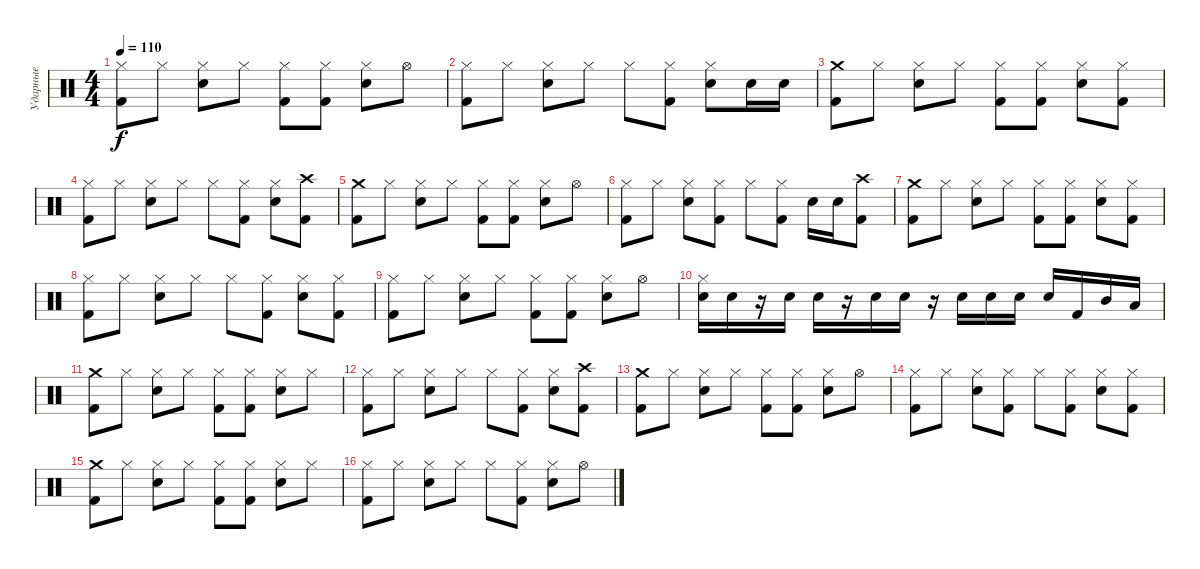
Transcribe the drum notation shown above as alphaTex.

\track ("Ударные" "Ударные") {instrument percussion}
\staff {score}
\articulation defaults
\ts (4 4)
\tempo 110
\clef neutral
\ks c
("Hi-Hat (closed)" "Kick (hit) 2").8{dy f} "Hi-Hat (closed)".8 ("Hi-Hat (closed)" "Electric Snare (hit)").8 "Hi-Hat (closed)".8 ("Hi-Hat (closed)" "Kick (hit) 2").8 ("Hi-Hat (closed)" "Kick (hit) 2").8 ("Hi-Hat (closed)" "Electric Snare (hit)").8 "Hi-Hat (open)".8 |
("Hi-Hat (closed)" "Kick (hit) 2").8 "Hi-Hat (closed)".8 ("Hi-Hat (closed)" "Electric Snare (hit)").8 "Hi-Hat (closed)".8 "Hi-Hat (closed)".8 ("Hi-Hat (closed)" "Kick (hit) 2").8 ("Hi-Hat (closed)" "Electric Snare (hit)").8 "Electric Snare (hit)".16 "Electric Snare (hit)".16 |
("Crash medium (hit)" "Kick (hit) 2").8 "Hi-Hat (closed)".8 ("Hi-Hat (closed)" "Electric Snare (hit)").8 "Hi-Hat (closed)".8 ("Hi-Hat (closed)" "Kick (hit) 2").8 ("Hi-Hat (closed)" "Kick (hit) 2").8 ("Hi-Hat (closed)" "Electric Snare (hit)").8 ("Hi-Hat (closed)" "Kick (hit) 2").8 |
("Hi-Hat (closed)" "Kick (hit) 2").8 "Hi-Hat (closed)".8 ("Hi-Hat (closed)" "Electric Snare (hit)").8 "Hi-Hat (closed)".8 "Hi-Hat (closed)".8 ("Hi-Hat (closed)" "Kick (hit) 2").8 ("Hi-Hat (closed)" "Electric Snare (hit)").8 ("Crash high (hit)" "Kick (hit) 2").8 |
("Crash medium (hit)" "Kick (hit) 2").8 "Hi-Hat (closed)".8 ("Hi-Hat (closed)" "Electric Snare (hit)").8 "Hi-Hat (closed)".8 ("Hi-Hat (closed)" "Kick (hit) 2").8 ("Hi-Hat (closed)" "Kick (hit) 2").8 ("Hi-Hat (closed)" "Electric Snare (hit)").8 "Hi-Hat (open)".8 |
("Hi-Hat (closed)" "Kick (hit) 2").8 "Hi-Hat (closed)".8 ("Hi-Hat (closed)" "Electric Snare (hit)").8 ("Hi-Hat (closed)" "Kick (hit) 2").8 "Hi-Hat (closed)".8 ("Hi-Hat (closed)" "Kick (hit) 2").8 "Electric Snare (hit)".16 "Electric Snare (hit)".16 ("Crash high (hit)" "Kick (hit) 2").8 |
("Crash medium (hit)" "Kick (hit) 2").8 "Hi-Hat (closed)".8 ("Hi-Hat (closed)" "Electric Snare (hit)").8 "Hi-Hat (closed)".8 ("Hi-Hat (closed)" "Kick (hit) 2").8 ("Hi-Hat (closed)" "Kick (hit) 2").8 ("Hi-Hat (closed)" "Electric Snare (hit)").8 ("Hi-Hat (closed)" "Kick (hit) 2").8 |
("Hi-Hat (closed)" "Kick (hit) 2").8 "Hi-Hat (closed)".8 ("Hi-Hat (closed)" "Electric Snare (hit)").8 "Hi-Hat (closed)".8 "Hi-Hat (closed)".8 ("Hi-Hat (closed)" "Kick (hit) 2").8 ("Hi-Hat (closed)" "Electric Snare (hit)").8 ("Hi-Hat (closed)" "Kick (hit) 2").8 |
("Hi-Hat (closed)" "Kick (hit) 2").8 "Hi-Hat (closed)".8 ("Hi-Hat (closed)" "Electric Snare (hit)").8 "Hi-Hat (closed)".8 ("Hi-Hat (closed)" "Kick (hit) 2").8 ("Hi-Hat (closed)" "Kick (hit) 2").8 ("Hi-Hat (closed)" "Electric Snare (hit)").8 "Hi-Hat (open)".8 |
("Hi-Hat (closed)" "Electric Snare (hit)").16 "Electric Snare (hit)".16 r.16 "Electric Snare (hit)".16 "Electric Snare (hit)".16 r.16 "Electric Snare (hit)".16 "Electric Snare (hit)".16 r.16 "Electric Snare (hit)".16 "Electric Snare (hit)".16 "Electric Snare (hit)".16 "Electric Snare (hit)".16 "Kick (hit) 2".16 "Mid Tom (hit)".16 "Low Tom (hit)".16 |
("Crash medium (hit)" "Kick (hit) 2").8 "Hi-Hat (closed)".8 ("Hi-Hat (closed)" "Electric Snare (hit)").8 "Hi-Hat (closed)".8 ("Hi-Hat (closed)" "Kick (hit) 2").8 ("Hi-Hat (closed)" "Kick (hit) 2").8 ("Hi-Hat (closed)" "Electric Snare (hit)").8 "Hi-Hat (closed)".8 |
("Hi-Hat (closed)" "Kick (hit) 2").8 "Hi-Hat (closed)".8 ("Hi-Hat (closed)" "Electric Snare (hit)").8 "Hi-Hat (closed)".8 "Hi-Hat (closed)".8 ("Hi-Hat (closed)" "Kick (hit) 2").8 ("Hi-Hat (closed)" "Electric Snare (hit)").8 ("Crash high (hit)" "Kick (hit) 2").8 |
("Crash medium (hit)" "Kick (hit) 2").8 "Hi-Hat (closed)".8 ("Hi-Hat (closed)" "Electric Snare (hit)").8 "Hi-Hat (closed)".8 ("Hi-Hat (closed)" "Kick (hit) 2").8 ("Hi-Hat (closed)" "Kick (hit) 2").8 ("Hi-Hat (closed)" "Electric Snare (hit)").8 "Hi-Hat (open)".8 |
("Hi-Hat (closed)" "Kick (hit) 2").8 "Hi-Hat (closed)".8 ("Hi-Hat (closed)" "Electric Snare (hit)").8 ("Hi-Hat (closed)" "Kick (hit) 2").8 "Hi-Hat (closed)".8 ("Hi-Hat (closed)" "Kick (hit) 2").8 ("Hi-Hat (closed)" "Electric Snare (hit)").8 ("Hi-Hat (closed)" "Kick (hit) 2").8 |
("Crash medium (hit)" "Kick (hit) 2").8 "Hi-Hat (closed)".8 ("Hi-Hat (closed)" "Electric Snare (hit)").8 "Hi-Hat (closed)".8 ("Hi-Hat (closed)" "Kick (hit) 2").8 ("Hi-Hat (closed)" "Kick (hit) 2").8 ("Hi-Hat (closed)" "Electric Snare (hit)").8 "Hi-Hat (closed)".8 |
("Hi-Hat (closed)" "Kick (hit) 2").8 "Hi-Hat (closed)".8 ("Hi-Hat (closed)" "Electric Snare (hit)").8 "Hi-Hat (closed)".8 "Hi-Hat (closed)".8 ("Hi-Hat (closed)" "Kick (hit) 2").8 ("Hi-Hat (closed)" "Electric Snare (hit)").8 "Hi-Hat (open)".8
